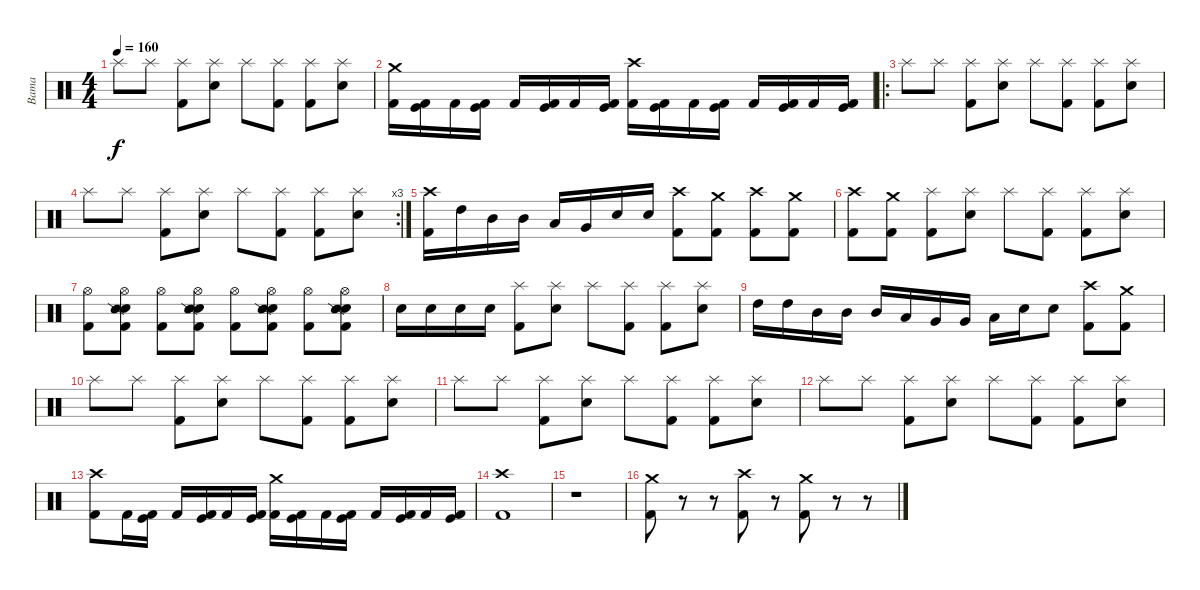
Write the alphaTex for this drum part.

\track ("Bama" "Bama") {instrument percussion}
\staff {score}
\articulation defaults
\ts (4 4)
\tempo 160
\clef neutral
\ks c "Splash (hit)".8{dy f} "Splash (hit)".8
("Splash (hit)" "Kick (hit) 2").8 ("Splash (hit)" "Electric Snare (hit)").8 "Splash (hit)".8 ("Splash (hit)" "Kick (hit) 2").8 ("Splash (hit)" "Kick (hit) 2").8 ("Splash (hit)" "Electric Snare (hit)").8 |
("Crash medium (hit)" "Kick (hit) 2").16 ("Kick (hit)" "Kick (hit) 2").16 "Kick (hit) 2".16 ("Kick (hit)" "Kick (hit) 2").16 "Kick (hit) 2".16 ("Kick (hit)" "Kick (hit) 2").16 "Kick (hit) 2".16 ("Kick (hit)" "Kick (hit) 2").16 ("Crash high (hit)" "Kick (hit) 2").16 ("Kick (hit)" "Kick (hit) 2").16 "Kick (hit) 2".16 ("Kick (hit)" "Kick (hit) 2").16 "Kick (hit) 2".16 ("Kick (hit)" "Kick (hit) 2").16 "Kick (hit) 2".16 ("Kick (hit)" "Kick (hit) 2").16 |
\ro "Splash (hit)".8 "Splash (hit)".8
("Splash (hit)" "Kick (hit) 2").8 ("Splash (hit)" "Electric Snare (hit)").8 "Splash (hit)".8 ("Splash (hit)" "Kick (hit) 2").8 ("Splash (hit)" "Kick (hit) 2").8 ("Splash (hit)" "Electric Snare (hit)").8 |
\rc 3 "Splash (hit)".8 "Splash (hit)".8
("Splash (hit)" "Kick (hit) 2").8 ("Splash (hit)" "Electric Snare (hit)").8 "Splash (hit)".8 ("Splash (hit)" "Kick (hit) 2").8 ("Splash (hit)" "Kick (hit) 2").8 ("Splash (hit)" "Electric Snare (hit)").8 |
("Crash high (hit)" "Kick (hit) 2").16 "High Tom (hit)".16 "Mid Tom (hit)".16 "Mid Tom (hit)".16 "Low Tom (hit)".16 "Very Low Tom (hit)".16 "Electric Snare (hit)".16 "Electric Snare (hit)".16 ("Crash high (hit)" "Kick (hit) 2").8 ("Crash medium (hit)" "Kick (hit) 2").8 ("Crash high (hit)" "Kick (hit) 2").8 ("Crash medium (hit)" "Kick (hit) 2").8 |
("Crash high (hit)" "Kick (hit) 2").8 ("Crash medium (hit)" "Kick (hit) 2").8 ("Splash (hit)" "Kick (hit) 2").8 ("Splash (hit)" "Electric Snare (hit)").8 "Splash (hit)".8 ("Splash (hit)" "Kick (hit) 2").8 ("Splash (hit)" "Kick (hit) 2").8 ("Splash (hit)" "Electric Snare (hit)").8 |
("Hi-Hat (open)" "Kick (hit) 2").8 ("Hi-Hat (open)" "Electric Snare (hit)" "Snare (side stick) 2" "Kick (hit) 2").8 ("Hi-Hat (open)" "Kick (hit) 2").8 ("Hi-Hat (open)" "Electric Snare (hit)" "Snare (side stick) 2" "Kick (hit) 2").8 ("Hi-Hat (open)" "Kick (hit) 2").8 ("Hi-Hat (open)" "Electric Snare (hit)" "Snare (side stick) 2" "Kick (hit) 2").8 ("Hi-Hat (open)" "Kick (hit) 2").8 ("Hi-Hat (open)" "Electric Snare (hit)" "Snare (side stick) 2" "Kick (hit) 2").8 |
"Electric Snare (hit)".16 "Electric Snare (hit)".16 "Electric Snare (hit)".16 "Electric Snare (hit)".16 ("Splash (hit)" "Kick (hit) 2").8 ("Splash (hit)" "Electric Snare (hit)").8 "Splash (hit)".8 ("Splash (hit)" "Kick (hit) 2").8 ("Splash (hit)" "Kick (hit) 2").8 ("Splash (hit)" "Electric Snare (hit)").8 |
"High Tom (hit)".16 "High Tom (hit)".16 "Mid Tom (hit)".16 "Mid Tom (hit)".16 "Mid Tom (hit)".16 "Low Tom (hit)".16 "Very Low Tom (hit)".16 "Very Low Tom (hit)".16 "Low Floor Tom (hit)".16 "Electric Snare (hit)".16 "Electric Snare (hit)".8 ("Crash high (hit)" "Kick (hit) 2").8 ("Crash medium (hit)" "Kick (hit) 2").8 |
"Splash (hit)".8 "Splash (hit)".8 ("Splash (hit)" "Kick (hit) 2").8 ("Splash (hit)" "Electric Snare (hit)").8 "Splash (hit)".8 ("Splash (hit)" "Kick (hit) 2").8 ("Splash (hit)" "Kick (hit) 2").8 ("Splash (hit)" "Electric Snare (hit)").8 |
"Splash (hit)".8 "Splash (hit)".8 ("Splash (hit)" "Kick (hit) 2").8 ("Splash (hit)" "Electric Snare (hit)").8 "Splash (hit)".8 ("Splash (hit)" "Kick (hit) 2").8 ("Splash (hit)" "Kick (hit) 2").8 ("Splash (hit)" "Electric Snare (hit)").8 |
"Splash (hit)".8 "Splash (hit)".8 ("Splash (hit)" "Kick (hit) 2").8 ("Splash (hit)" "Electric Snare (hit)").8 "Splash (hit)".8 ("Splash (hit)" "Kick (hit) 2").8 ("Splash (hit)" "Kick (hit) 2").8 ("Splash (hit)" "Electric Snare (hit)").8 |
("Crash high (hit)" "Kick (hit) 2").8 "Kick (hit) 2".16 ("Kick (hit)" "Kick (hit) 2").16 "Kick (hit) 2".16 ("Kick (hit)" "Kick (hit) 2").16 "Kick (hit) 2".16 ("Kick (hit)" "Kick (hit) 2").16 ("Crash medium (hit)" "Kick (hit) 2").16 ("Kick (hit)" "Kick (hit) 2").16 "Kick (hit) 2".16 ("Kick (hit)" "Kick (hit) 2").16 "Kick (hit) 2".16 ("Kick (hit)" "Kick (hit) 2").16 "Kick (hit) 2".16 ("Kick (hit)" "Kick (hit) 2").16 |
("Crash high (hit)" "Kick (hit) 2").1 |
r.1 |
("Crash medium (hit)" "Kick (hit) 2").8 r.8 r.8 ("Crash high (hit)" "Kick (hit) 2").8 r.8 ("Crash medium (hit)" "Kick (hit) 2").8 r.8 r.8
